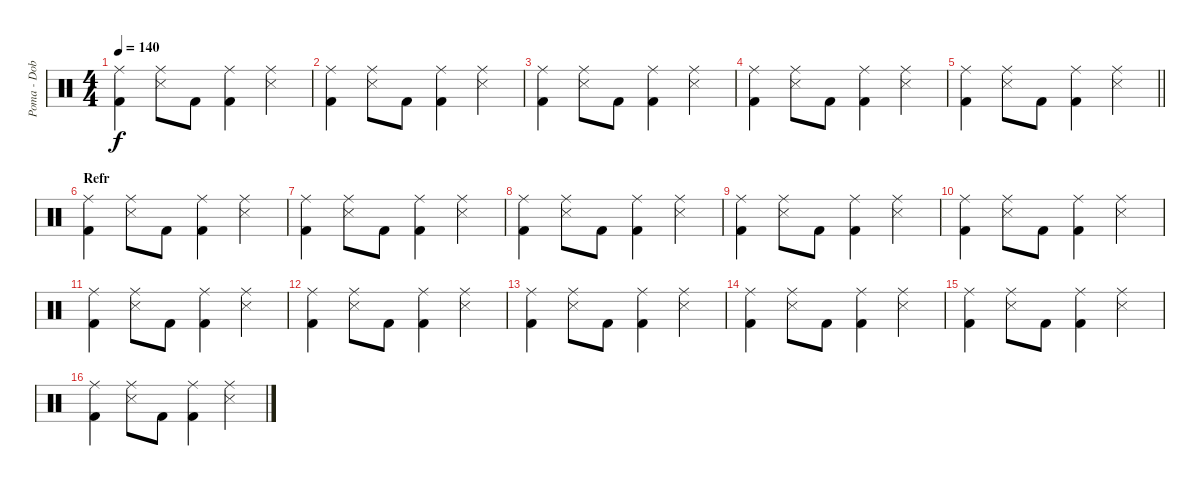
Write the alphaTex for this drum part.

\track ("Poma - Dob" "Poma - Dob") {instrument percussion}
\staff {score}
\articulation defaults
\ts (4 4)
\tempo 140
\clef neutral
\ks c
("Ride (middle)" "Kick (hit) 2").4{dy f} ("Ride (middle)" "Snare (side stick) 3").8 "Kick (hit) 2".8 ("Ride (middle)" "Kick (hit) 2").4 ("Ride (middle)" "Snare (side stick) 3").4 |
("Ride (middle)" "Kick (hit) 2").4 ("Ride (middle)" "Snare (side stick) 3").8 "Kick (hit) 2".8 ("Ride (middle)" "Kick (hit) 2").4 ("Ride (middle)" "Snare (side stick) 3").4 |
("Ride (middle)" "Kick (hit) 2").4 ("Ride (middle)" "Snare (side stick) 3").8 "Kick (hit) 2".8 ("Ride (middle)" "Kick (hit) 2").4 ("Ride (middle)" "Snare (side stick) 3").4 |
("Ride (middle)" "Kick (hit) 2").4 ("Ride (middle)" "Snare (side stick) 3").8 "Kick (hit) 2".8 ("Ride (middle)" "Kick (hit) 2").4 ("Ride (middle)" "Snare (side stick) 3").4 |
\barLineRight lightlight
("Ride (middle)" "Kick (hit) 2").4 ("Ride (middle)" "Snare (side stick) 3").8 "Kick (hit) 2".8 ("Ride (middle)" "Kick (hit) 2").4 ("Ride (middle)" "Snare (side stick) 3").4 |
\section ("" "Refr")
("Ride (middle)" "Kick (hit) 2").4 ("Ride (middle)" "Snare (side stick) 3").8 "Kick (hit) 2".8 ("Ride (middle)" "Kick (hit) 2").4 ("Ride (middle)" "Snare (side stick) 3").4 |
("Ride (middle)" "Kick (hit) 2").4 ("Ride (middle)" "Snare (side stick) 3").8 "Kick (hit) 2".8 ("Ride (middle)" "Kick (hit) 2").4 ("Ride (middle)" "Snare (side stick) 3").4 |
("Ride (middle)" "Kick (hit) 2").4 ("Ride (middle)" "Snare (side stick) 3").8 "Kick (hit) 2".8 ("Ride (middle)" "Kick (hit) 2").4 ("Ride (middle)" "Snare (side stick) 3").4 |
("Ride (middle)" "Kick (hit) 2").4 ("Ride (middle)" "Snare (side stick) 3").8 "Kick (hit) 2".8 ("Ride (middle)" "Kick (hit) 2").4 ("Ride (middle)" "Snare (side stick) 3").4 |
("Ride (middle)" "Kick (hit) 2").4 ("Ride (middle)" "Snare (side stick) 3").8 "Kick (hit) 2".8 ("Ride (middle)" "Kick (hit) 2").4 ("Ride (middle)" "Snare (side stick) 3").4 |
("Ride (middle)" "Kick (hit) 2").4 ("Ride (middle)" "Snare (side stick) 3").8 "Kick (hit) 2".8 ("Ride (middle)" "Kick (hit) 2").4 ("Ride (middle)" "Snare (side stick) 3").4 |
("Ride (middle)" "Kick (hit) 2").4 ("Ride (middle)" "Snare (side stick) 3").8 "Kick (hit) 2".8 ("Ride (middle)" "Kick (hit) 2").4 ("Ride (middle)" "Snare (side stick) 3").4 |
("Ride (middle)" "Kick (hit) 2").4 ("Ride (middle)" "Snare (side stick) 3").8 "Kick (hit) 2".8 ("Ride (middle)" "Kick (hit) 2").4 ("Ride (middle)" "Snare (side stick) 3").4 |
("Ride (middle)" "Kick (hit) 2").4 ("Ride (middle)" "Snare (side stick) 3").8 "Kick (hit) 2".8 ("Ride (middle)" "Kick (hit) 2").4 ("Ride (middle)" "Snare (side stick) 3").4 |
("Ride (middle)" "Kick (hit) 2").4 ("Ride (middle)" "Snare (side stick) 3").8 "Kick (hit) 2".8 ("Ride (middle)" "Kick (hit) 2").4 ("Ride (middle)" "Snare (side stick) 3").4 |
("Ride (middle)" "Kick (hit) 2").4 ("Ride (middle)" "Snare (side stick) 3").8 "Kick (hit) 2".8 ("Ride (middle)" "Kick (hit) 2").4 ("Ride (middle)" "Snare (side stick) 3").4
